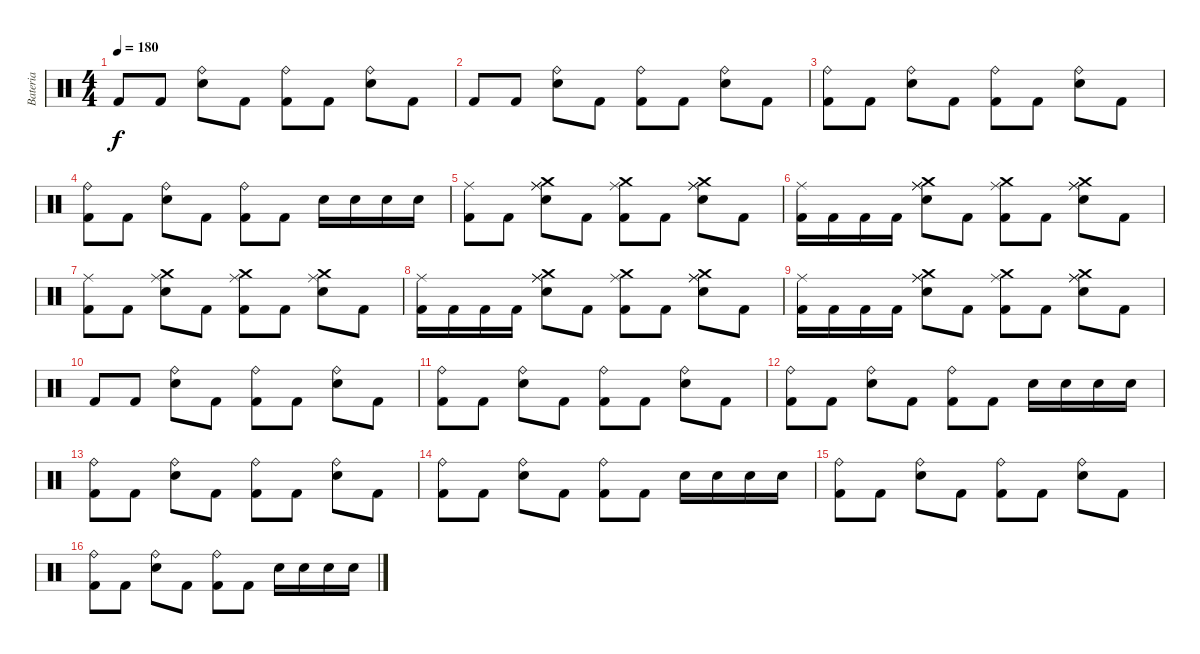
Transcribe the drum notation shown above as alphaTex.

\track ("Bateria" "Bateria") {instrument percussion}
\staff {score}
\articulation defaults
\ts (4 4)
\tempo 180
\clef neutral
\ks c "Kick (hit) 2".8{dy f} "Kick (hit) 2".8
("Electric Snare (hit)" "Ride (bell)").8 "Kick (hit) 2".8 ("Kick (hit) 2" "Ride (bell)").8 "Kick (hit) 2".8 ("Electric Snare (hit)" "Ride (bell)").8 "Kick (hit) 2".8 |
"Kick (hit) 2".8 "Kick (hit) 2".8 ("Electric Snare (hit)" "Ride (bell)").8 "Kick (hit) 2".8 ("Kick (hit) 2" "Ride (bell)").8 "Kick (hit) 2".8 ("Electric Snare (hit)" "Ride (bell)").8 "Kick (hit) 2".8 |
("Kick (hit) 2" "Ride (bell)").8 "Kick (hit) 2".8 ("Electric Snare (hit)" "Ride (bell)").8 "Kick (hit) 2".8 ("Kick (hit) 2" "Ride (bell)").8 "Kick (hit) 2".8 ("Electric Snare (hit)" "Ride (bell)").8 "Kick (hit) 2".8 |
("Kick (hit) 2" "Ride (bell)").8 "Kick (hit) 2".8 ("Electric Snare (hit)" "Ride (bell)").8 "Kick (hit) 2".8 ("Kick (hit) 2" "Ride (bell)").8 "Kick (hit) 2".8 "Electric Snare (hit)".16 "Electric Snare (hit)".16 "Electric Snare (hit)".16 "Electric Snare (hit)".16 |
("Kick (hit) 2" "Ride (middle)").8 "Kick (hit) 2".8 ("Electric Snare (hit)" "Ride (middle)" "Ride (middle)" "Crash medium (hit)").8 "Kick (hit) 2".8 ("Kick (hit) 2" "Ride (middle)" "Crash medium (hit)").8 "Kick (hit) 2".8 ("Electric Snare (hit)" "Ride (middle)" "Ride (middle)" "Crash medium (hit)").8 "Kick (hit) 2".8 |
("Kick (hit) 2" "Ride (middle)").16 "Kick (hit) 2".16 "Kick (hit) 2".16 "Kick (hit) 2".16 ("Electric Snare (hit)" "Ride (middle)" "Ride (middle)" "Crash medium (hit)").8 "Kick (hit) 2".8 ("Kick (hit) 2" "Ride (middle)" "Crash medium (hit)").8 "Kick (hit) 2".8 ("Electric Snare (hit)" "Ride (middle)" "Ride (middle)" "Crash medium (hit)").8 "Kick (hit) 2".8 |
("Kick (hit) 2" "Ride (middle)").8 "Kick (hit) 2".8 ("Electric Snare (hit)" "Ride (middle)" "Crash medium (hit)").8 "Kick (hit) 2".8 ("Kick (hit) 2" "Ride (middle)" "Crash medium (hit)").8 "Kick (hit) 2".8 ("Electric Snare (hit)" "Ride (middle)" "Crash medium (hit)").8 "Kick (hit) 2".8 |
("Kick (hit) 2" "Ride (middle)").16 "Kick (hit) 2".16 "Kick (hit) 2".16 "Kick (hit) 2".16 ("Electric Snare (hit)" "Ride (middle)" "Ride (middle)" "Crash medium (hit)").8 "Kick (hit) 2".8 ("Kick (hit) 2" "Ride (middle)" "Crash medium (hit)").8 "Kick (hit) 2".8 ("Electric Snare (hit)" "Ride (middle)" "Ride (middle)" "Crash medium (hit)").8 "Kick (hit) 2".8 |
("Kick (hit) 2" "Ride (middle)").16 "Kick (hit) 2".16 "Kick (hit) 2".16 "Kick (hit) 2".16 ("Electric Snare (hit)" "Ride (middle)" "Ride (middle)" "Crash medium (hit)").8 "Kick (hit) 2".8 ("Kick (hit) 2" "Ride (middle)" "Crash medium (hit)").8 "Kick (hit) 2".8 ("Electric Snare (hit)" "Ride (middle)" "Ride (middle)" "Crash medium (hit)").8 "Kick (hit) 2".8 |
"Kick (hit) 2".8 "Kick (hit) 2".8 ("Electric Snare (hit)" "Ride (bell)").8 "Kick (hit) 2".8 ("Kick (hit) 2" "Ride (bell)").8 "Kick (hit) 2".8 ("Electric Snare (hit)" "Ride (bell)").8 "Kick (hit) 2".8 |
("Kick (hit) 2" "Ride (bell)").8 "Kick (hit) 2".8 ("Electric Snare (hit)" "Ride (bell)").8 "Kick (hit) 2".8 ("Kick (hit) 2" "Ride (bell)").8 "Kick (hit) 2".8 ("Electric Snare (hit)" "Ride (bell)").8 "Kick (hit) 2".8 |
("Kick (hit) 2" "Ride (bell)").8 "Kick (hit) 2".8 ("Electric Snare (hit)" "Ride (bell)").8 "Kick (hit) 2".8 ("Kick (hit) 2" "Ride (bell)").8 "Kick (hit) 2".8 "Electric Snare (hit)".16 "Electric Snare (hit)".16 "Electric Snare (hit)".16 "Electric Snare (hit)".16 |
("Kick (hit) 2" "Ride (bell)").8 "Kick (hit) 2".8 ("Electric Snare (hit)" "Ride (bell)").8 "Kick (hit) 2".8 ("Kick (hit) 2" "Ride (bell)").8 "Kick (hit) 2".8 ("Electric Snare (hit)" "Ride (bell)").8 "Kick (hit) 2".8 |
("Kick (hit) 2" "Ride (bell)").8 "Kick (hit) 2".8 ("Electric Snare (hit)" "Ride (bell)").8 "Kick (hit) 2".8 ("Kick (hit) 2" "Ride (bell)").8 "Kick (hit) 2".8 "Electric Snare (hit)".16 "Electric Snare (hit)".16 "Electric Snare (hit)".16 "Electric Snare (hit)".16 |
("Kick (hit) 2" "Ride (bell)").8 "Kick (hit) 2".8 ("Electric Snare (hit)" "Ride (bell)").8 "Kick (hit) 2".8 ("Kick (hit) 2" "Ride (bell)").8 "Kick (hit) 2".8 ("Electric Snare (hit)" "Ride (bell)").8 "Kick (hit) 2".8 |
("Kick (hit) 2" "Ride (bell)").8 "Kick (hit) 2".8 ("Electric Snare (hit)" "Ride (bell)").8 "Kick (hit) 2".8 ("Kick (hit) 2" "Ride (bell)").8 "Kick (hit) 2".8 "Electric Snare (hit)".16 "Electric Snare (hit)".16 "Electric Snare (hit)".16 "Electric Snare (hit)".16
